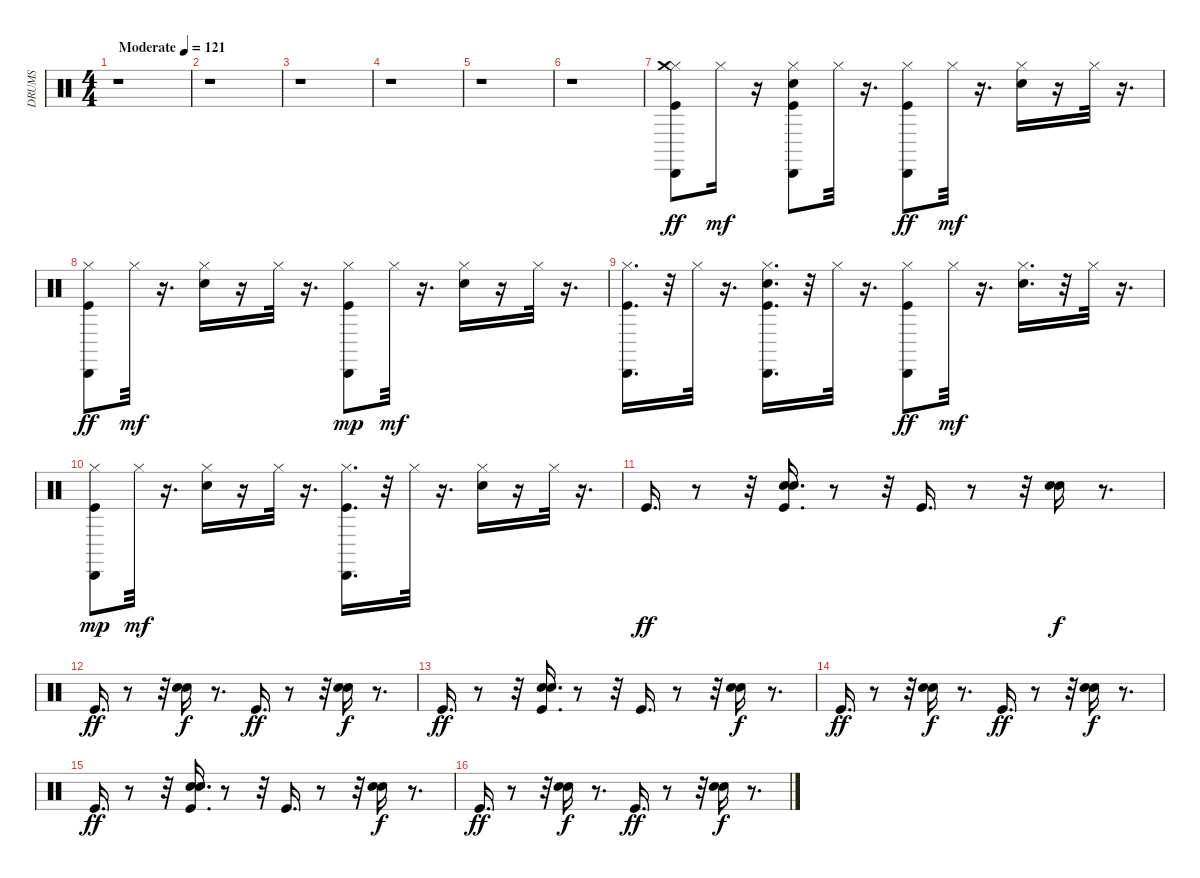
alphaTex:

\track ("DRUMS" "DRUMS") {instrument percussion}
\staff {score}
\articulation defaults
\ts (4 4)
\tempo (121 "Moderate")
\clef neutral
\ks c
r.1{dy ff} |
r.1 |
r.1 |
r.1 |
r.1 |
r.1 |
("Hi-Hat (closed)" "Cabasa (hit)" "Crash medium (hit)" "Kick (hit)").8 "Hi-Hat (closed)".16{dy mf} r.16 ("Cabasa (hit)" "Kick (hit)" "Electric Snare (hit)" "Hi-Hat (closed)").8 "Hi-Hat (closed)".32 r.16{d} ("Hi-Hat (closed)" "Cabasa (hit)" "Kick (hit)").8{dy ff} "Hi-Hat (closed)".32{dy mf} r.16{d} ("Hi-Hat (closed)" "Electric Snare (hit)").16 r.16 "Hi-Hat (closed)".32 r.16{d} |
("Cabasa (hit)" "Hi-Hat (closed)" "Kick (hit)").8{dy ff} "Hi-Hat (closed)".32{dy mf} r.16{d} ("Hi-Hat (closed)" "Electric Snare (hit)").16 r.16 "Hi-Hat (closed)".32 r.16{d} ("Kick (hit)" "Hi-Hat (closed)" "Cabasa (hit)").8{dy mp} "Hi-Hat (closed)".32{dy mf} r.16{d} ("Electric Snare (hit)" "Hi-Hat (closed)").16 r.16 "Hi-Hat (closed)".32 r.16{d} |
("Kick (hit)" "Cabasa (hit)" "Hi-Hat (closed)").16{d} r.32 "Hi-Hat (closed)".32 r.16{d} ("Electric Snare (hit)" "Kick (hit)" "Cabasa (hit)" "Hi-Hat (closed)").16{d} r.32 "Hi-Hat (closed)".32 r.16{d} ("Hi-Hat (closed)" "Cabasa (hit)" "Kick (hit)").8{dy ff} "Hi-Hat (closed)".32{dy mf} r.16{d} ("Electric Snare (hit)" "Hi-Hat (closed)").16{d} r.32 "Hi-Hat (closed)".32 r.16{d} |
("Hi-Hat (closed)" "Kick (hit)" "Cabasa (hit)").8{dy mp} "Hi-Hat (closed)".32{dy mf} r.16{d} ("Electric Snare (hit)" "Hi-Hat (closed)").16 r.16 "Hi-Hat (closed)".32 r.16{d} ("Cabasa (hit)" "Kick (hit)" "Hi-Hat (closed)").16{d} r.32 "Hi-Hat (closed)".32 r.16{d} ("Electric Snare (hit)" "Hi-Hat (closed)").16 r.16 "Hi-Hat (closed)".32 r.16{d} |
"Kick (hit)".16{d dy ff} r.8 r.32 ("Kick (hit)" "Electric Snare (hit)" "Hand Clap (hit)").16{d} r.8 r.32 "Kick (hit)".16{d} r.8 r.32 ("Electric Snare (hit)" "Hand Clap (hit)").16{dy f} r.8{d} |
"Kick (hit)".16{d dy ff} r.8 r.32 ("Hand Clap (hit)" "Electric Snare (hit)").16{dy f} r.8{d} "Kick (hit)".16{d dy ff} r.8 r.32 ("Hand Clap (hit)" "Electric Snare (hit)").16{dy f} r.8{d} |
"Kick (hit)".16{d dy ff} r.8 r.32 ("Kick (hit)" "Hand Clap (hit)" "Electric Snare (hit)").16{d} r.8 r.32 "Kick (hit)".16{d} r.8 r.32 ("Hand Clap (hit)" "Electric Snare (hit)").16{dy f} r.8{d} |
"Kick (hit)".16{d dy ff} r.8 r.32 ("Hand Clap (hit)" "Electric Snare (hit)").16{dy f} r.8{d} "Kick (hit)".16{d dy ff} r.8 r.32 ("Hand Clap (hit)" "Electric Snare (hit)").16{dy f} r.8{d} |
"Kick (hit)".16{d dy ff} r.8 r.32 ("Hand Clap (hit)" "Electric Snare (hit)" "Kick (hit)").16{d} r.8 r.32 "Kick (hit)".16{d} r.8 r.32 ("Hand Clap (hit)" "Electric Snare (hit)").16{dy f} r.8{d} |
"Kick (hit)".16{d dy ff} r.8 r.32 ("Hand Clap (hit)" "Electric Snare (hit)").16{dy f} r.8{d} "Kick (hit)".16{d dy ff} r.8 r.32 ("Hand Clap (hit)" "Electric Snare (hit)").16{dy f} r.8{d}
